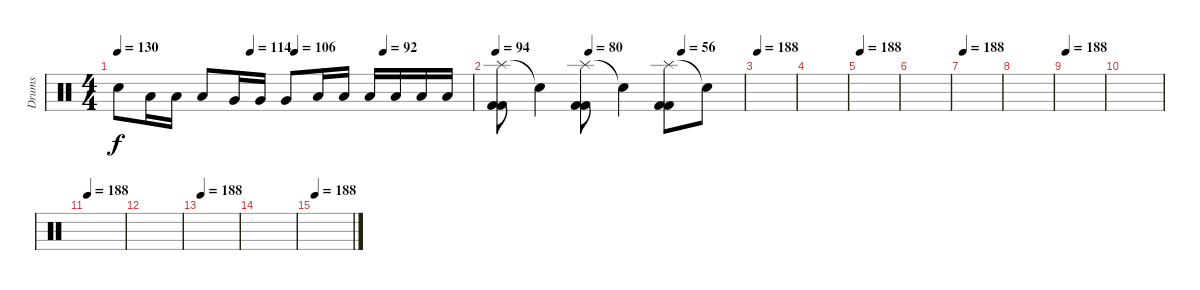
\track ("Drums" "Drums") {instrument percussion}
\staff {score}
\articulation defaults
\ts (4 4)
\tempo 130
\tempo (114 0.375)
\tempo (106 0.5)
\tempo (92 0.75)
\clef neutral
\ks c "Electric Snare (hit)".8{dy f} "Low Tom (hit)".16 "Low Tom (hit)".16 "Low Tom (hit)".8 "Very Low Tom (hit)".16 "Very Low Tom (hit)".16 "Very Low Tom (hit)".8 "Low Floor Tom (hit)".16 "Low Floor Tom (hit)".16 "Low Floor Tom (hit)".16 "Low Floor Tom (hit)".16 "Low Floor Tom (hit)".16 "Low Floor Tom (hit)".16
|
\tempo 94
\tempo (80 0.375)
\tempo (56 0.75)
("Splash (hit)" "Kick (hit) 2" "Kick (hit) 2").8 "Snare (hit)"{t}.4 ("Splash (hit)" "Kick (hit) 2" "Kick (hit) 2").8 "Snare (hit)"{t}.4 ("Splash (hit)" "Kick (hit) 2" "Kick (hit) 2").8 "Snare (hit)"{t}.8 |
\tempo 188
|
|
\tempo 188
|
|
\tempo 188
|
|
\tempo 188
|
|
\tempo 188
|
|
\tempo 188
|
|
\tempo 188
